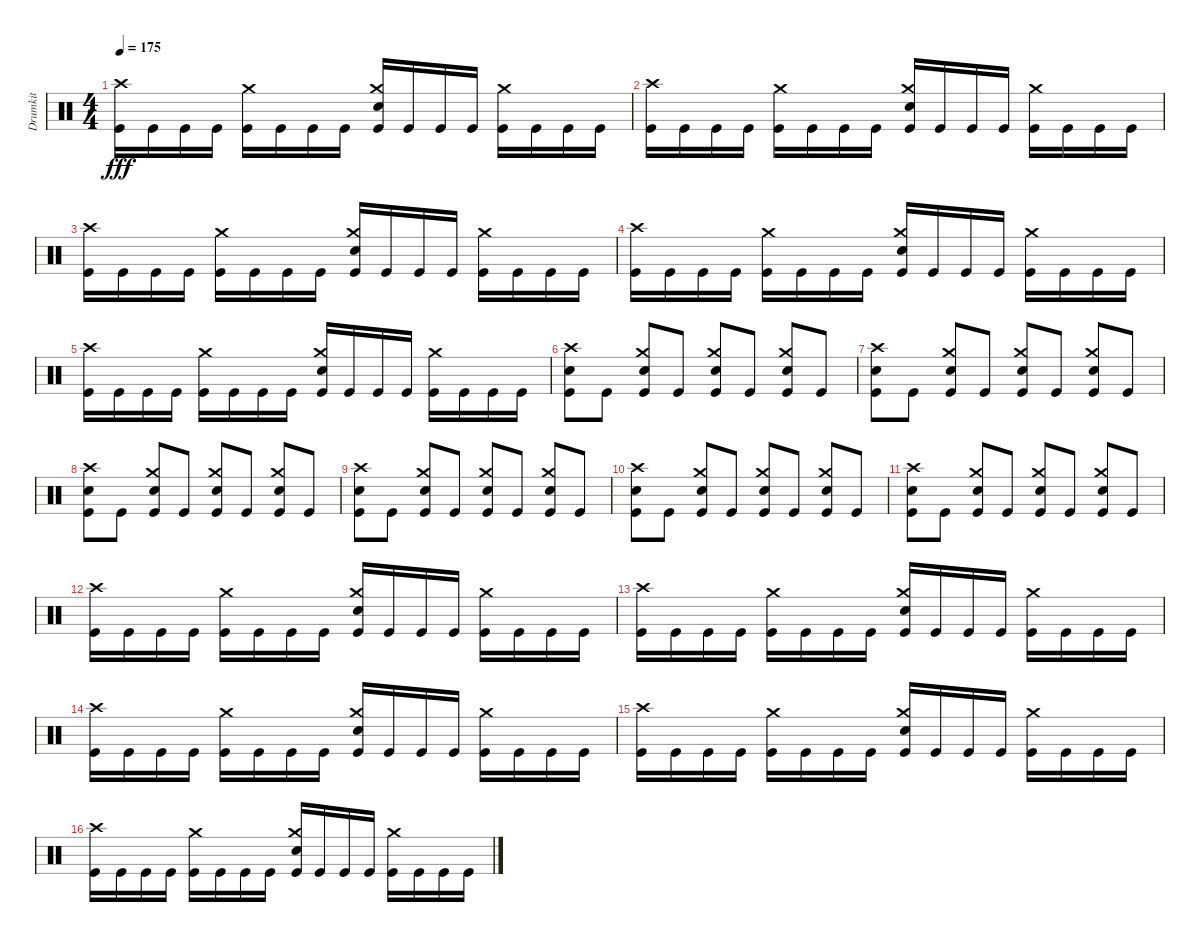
\track ("Drumkit" "Drumkit") {instrument percussion}
\staff {score}
\articulation defaults
\ts (4 4)
\tempo 175
\clef neutral
\ks c
("Crash high (hit)" "Kick (hit)").16{dy fff} "Kick (hit)".16 "Kick (hit)".16 "Kick (hit)".16 ("Crash medium (hit)" "Kick (hit)").16 "Kick (hit)".16 "Kick (hit)".16 "Kick (hit)".16 ("Crash medium (hit)" "Snare (hit) 2" "Kick (hit)").16 "Kick (hit)".16 "Kick (hit)".16 "Kick (hit)".16 ("Crash medium (hit)" "Kick (hit)").16 "Kick (hit)".16 "Kick (hit)".16 "Kick (hit)".16 |
("Crash high (hit)" "Kick (hit)").16 "Kick (hit)".16 "Kick (hit)".16 "Kick (hit)".16 ("Crash medium (hit)" "Kick (hit)").16 "Kick (hit)".16 "Kick (hit)".16 "Kick (hit)".16 ("Crash medium (hit)" "Snare (hit) 2" "Kick (hit)").16 "Kick (hit)".16 "Kick (hit)".16 "Kick (hit)".16 ("Crash medium (hit)" "Kick (hit)").16 "Kick (hit)".16 "Kick (hit)".16 "Kick (hit)".16 |
("Crash high (hit)" "Kick (hit)").16 "Kick (hit)".16 "Kick (hit)".16 "Kick (hit)".16 ("Crash medium (hit)" "Kick (hit)").16 "Kick (hit)".16 "Kick (hit)".16 "Kick (hit)".16 ("Crash medium (hit)" "Snare (hit) 2" "Kick (hit)").16 "Kick (hit)".16 "Kick (hit)".16 "Kick (hit)".16 ("Crash medium (hit)" "Kick (hit)").16 "Kick (hit)".16 "Kick (hit)".16 "Kick (hit)".16 |
("Crash high (hit)" "Kick (hit)").16 "Kick (hit)".16 "Kick (hit)".16 "Kick (hit)".16 ("Crash medium (hit)" "Kick (hit)").16 "Kick (hit)".16 "Kick (hit)".16 "Kick (hit)".16 ("Crash medium (hit)" "Snare (hit) 2" "Kick (hit)").16 "Kick (hit)".16 "Kick (hit)".16 "Kick (hit)".16 ("Crash medium (hit)" "Kick (hit)").16 "Kick (hit)".16 "Kick (hit)".16 "Kick (hit)".16 |
("Crash high (hit)" "Kick (hit)").16 "Kick (hit)".16 "Kick (hit)".16 "Kick (hit)".16 ("Crash medium (hit)" "Kick (hit)").16 "Kick (hit)".16 "Kick (hit)".16 "Kick (hit)".16 ("Crash medium (hit)" "Snare (hit) 2" "Kick (hit)").16 "Kick (hit)".16 "Kick (hit)".16 "Kick (hit)".16 ("Crash medium (hit)" "Kick (hit)").16 "Kick (hit)".16 "Kick (hit)".16 "Kick (hit)".16 |
("Crash high (hit)" "Snare (hit) 2" "Kick (hit)").8 "Kick (hit)".8 ("Crash medium (hit)" "Snare (hit) 2" "Kick (hit)").8 "Kick (hit)".8 ("Crash medium (hit)" "Snare (hit) 2" "Kick (hit)").8 "Kick (hit)".8 ("Crash medium (hit)" "Snare (hit) 2" "Kick (hit)").8 "Kick (hit)".8 |
("Crash high (hit)" "Snare (hit) 2" "Kick (hit)").8 "Kick (hit)".8 ("Crash medium (hit)" "Snare (hit) 2" "Kick (hit)").8 "Kick (hit)".8 ("Crash medium (hit)" "Snare (hit) 2" "Kick (hit)").8 "Kick (hit)".8 ("Crash medium (hit)" "Snare (hit) 2" "Kick (hit)").8 "Kick (hit)".8 |
("Crash high (hit)" "Snare (hit) 2" "Kick (hit)").8 "Kick (hit)".8 ("Crash medium (hit)" "Snare (hit) 2" "Kick (hit)").8 "Kick (hit)".8 ("Crash medium (hit)" "Snare (hit) 2" "Kick (hit)").8 "Kick (hit)".8 ("Crash medium (hit)" "Snare (hit) 2" "Kick (hit)").8 "Kick (hit)".8 |
("Crash high (hit)" "Snare (hit) 2" "Kick (hit)").8 "Kick (hit)".8 ("Crash medium (hit)" "Snare (hit) 2" "Kick (hit)").8 "Kick (hit)".8 ("Crash medium (hit)" "Snare (hit) 2" "Kick (hit)").8 "Kick (hit)".8 ("Crash medium (hit)" "Snare (hit) 2" "Kick (hit)").8 "Kick (hit)".8 |
("Crash high (hit)" "Snare (hit) 2" "Kick (hit)").8 "Kick (hit)".8 ("Crash medium (hit)" "Snare (hit) 2" "Kick (hit)").8 "Kick (hit)".8 ("Crash medium (hit)" "Snare (hit) 2" "Kick (hit)").8 "Kick (hit)".8 ("Crash medium (hit)" "Snare (hit) 2" "Kick (hit)").8 "Kick (hit)".8 |
("Crash high (hit)" "Snare (hit) 2" "Kick (hit)").8 "Kick (hit)".8 ("Crash medium (hit)" "Snare (hit) 2" "Kick (hit)").8 "Kick (hit)".8 ("Crash medium (hit)" "Snare (hit) 2" "Kick (hit)").8 "Kick (hit)".8 ("Crash medium (hit)" "Snare (hit) 2" "Kick (hit)").8 "Kick (hit)".8 |
("Crash high (hit)" "Kick (hit)").16 "Kick (hit)".16 "Kick (hit)".16 "Kick (hit)".16 ("Crash medium (hit)" "Kick (hit)").16 "Kick (hit)".16 "Kick (hit)".16 "Kick (hit)".16 ("Crash medium (hit)" "Snare (hit) 2" "Kick (hit)").16 "Kick (hit)".16 "Kick (hit)".16 "Kick (hit)".16 ("Crash medium (hit)" "Kick (hit)").16 "Kick (hit)".16 "Kick (hit)".16 "Kick (hit)".16 |
("Crash high (hit)" "Kick (hit)").16 "Kick (hit)".16 "Kick (hit)".16 "Kick (hit)".16 ("Crash medium (hit)" "Kick (hit)").16 "Kick (hit)".16 "Kick (hit)".16 "Kick (hit)".16 ("Crash medium (hit)" "Snare (hit) 2" "Kick (hit)").16 "Kick (hit)".16 "Kick (hit)".16 "Kick (hit)".16 ("Crash medium (hit)" "Kick (hit)").16 "Kick (hit)".16 "Kick (hit)".16 "Kick (hit)".16 |
("Crash high (hit)" "Kick (hit)").16 "Kick (hit)".16 "Kick (hit)".16 "Kick (hit)".16 ("Crash medium (hit)" "Kick (hit)").16 "Kick (hit)".16 "Kick (hit)".16 "Kick (hit)".16 ("Crash medium (hit)" "Snare (hit) 2" "Kick (hit)").16 "Kick (hit)".16 "Kick (hit)".16 "Kick (hit)".16 ("Crash medium (hit)" "Kick (hit)").16 "Kick (hit)".16 "Kick (hit)".16 "Kick (hit)".16 |
("Crash high (hit)" "Kick (hit)").16 "Kick (hit)".16 "Kick (hit)".16 "Kick (hit)".16 ("Crash medium (hit)" "Kick (hit)").16 "Kick (hit)".16 "Kick (hit)".16 "Kick (hit)".16 ("Crash medium (hit)" "Snare (hit) 2" "Kick (hit)").16 "Kick (hit)".16 "Kick (hit)".16 "Kick (hit)".16 ("Crash medium (hit)" "Kick (hit)").16 "Kick (hit)".16 "Kick (hit)".16 "Kick (hit)".16 |
("Crash high (hit)" "Kick (hit)").16 "Kick (hit)".16 "Kick (hit)".16 "Kick (hit)".16 ("Crash medium (hit)" "Kick (hit)").16 "Kick (hit)".16 "Kick (hit)".16 "Kick (hit)".16 ("Crash medium (hit)" "Snare (hit) 2" "Kick (hit)").16 "Kick (hit)".16 "Kick (hit)".16 "Kick (hit)".16 ("Crash medium (hit)" "Kick (hit)").16 "Kick (hit)".16 "Kick (hit)".16 "Kick (hit)".16
